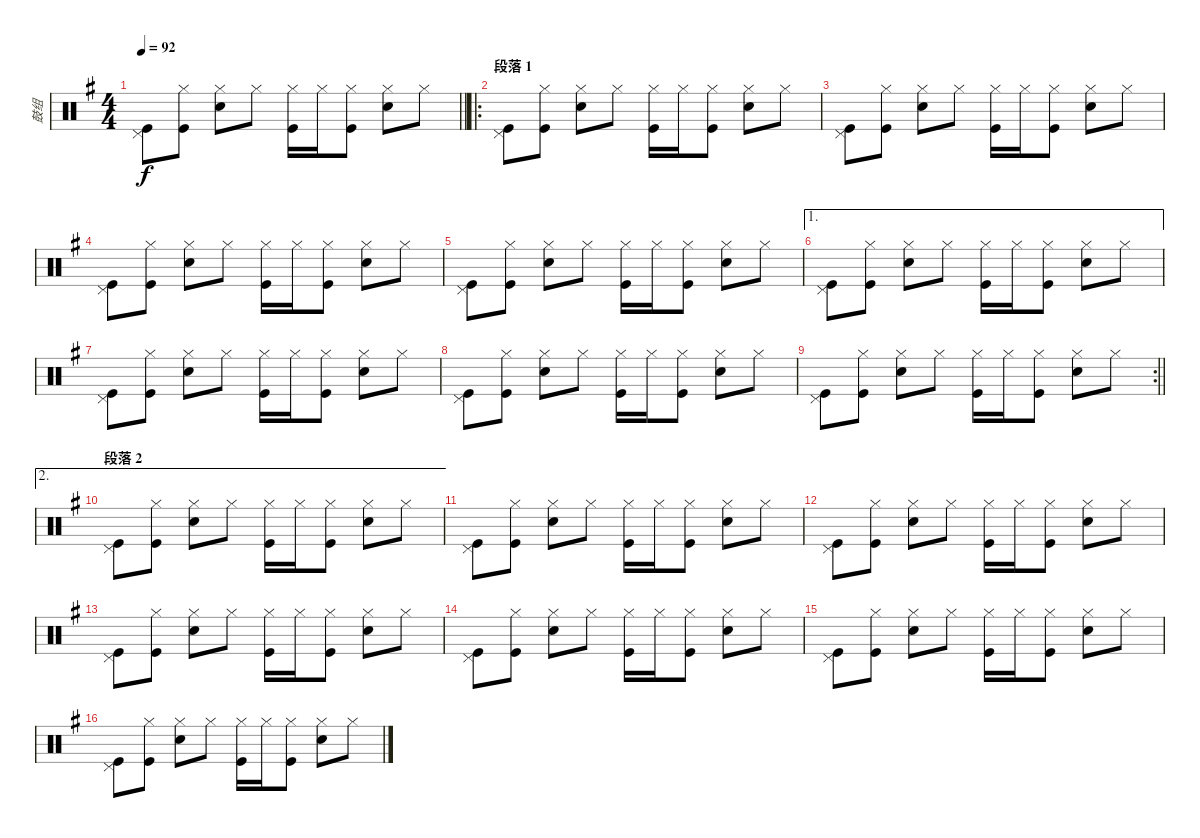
\track ("鼓组" "鼓组") {instrument percussion}
\staff {score}
\articulation defaults
\ts (4 4)
\tempo 92
\clef neutral
\barLineRight lightlight
\ks g
("Pedal Hi-Hat (hit)" "Kick (hit)").8{dy f} ("Hi-Hat (closed)" "Kick (hit)").8 ("Hi-Hat (closed)" "Snare (hit) 2").8 "Hi-Hat (closed)".8 ("Hi-Hat (closed)" "Kick (hit)").16 "Hi-Hat (closed)".16 ("Hi-Hat (closed)" "Kick (hit)").8 ("Hi-Hat (closed)" "Snare (hit) 2").8 "Hi-Hat (closed)".8 |
\ro
\section ("" "段落 1")
("Pedal Hi-Hat (hit)" "Kick (hit)").8 ("Hi-Hat (closed)" "Kick (hit)").8 ("Hi-Hat (closed)" "Snare (hit) 2").8 "Hi-Hat (closed)".8 ("Hi-Hat (closed)" "Kick (hit)").16 "Hi-Hat (closed)".16 ("Hi-Hat (closed)" "Kick (hit)").8 ("Hi-Hat (closed)" "Snare (hit) 2").8 "Hi-Hat (closed)".8 |
("Pedal Hi-Hat (hit)" "Kick (hit)").8 ("Hi-Hat (closed)" "Kick (hit)").8 ("Hi-Hat (closed)" "Snare (hit) 2").8 "Hi-Hat (closed)".8 ("Hi-Hat (closed)" "Kick (hit)").16 "Hi-Hat (closed)".16 ("Hi-Hat (closed)" "Kick (hit)").8 ("Hi-Hat (closed)" "Snare (hit) 2").8 "Hi-Hat (closed)".8 |
("Pedal Hi-Hat (hit)" "Kick (hit)").8 ("Hi-Hat (closed)" "Kick (hit)").8 ("Hi-Hat (closed)" "Snare (hit) 2").8 "Hi-Hat (closed)".8 ("Hi-Hat (closed)" "Kick (hit)").16 "Hi-Hat (closed)".16 ("Hi-Hat (closed)" "Kick (hit)").8 ("Hi-Hat (closed)" "Snare (hit) 2").8 "Hi-Hat (closed)".8 |
("Pedal Hi-Hat (hit)" "Kick (hit)").8 ("Hi-Hat (closed)" "Kick (hit)").8 ("Hi-Hat (closed)" "Snare (hit) 2").8 "Hi-Hat (closed)".8 ("Hi-Hat (closed)" "Kick (hit)").16 "Hi-Hat (closed)".16 ("Hi-Hat (closed)" "Kick (hit)").8 ("Hi-Hat (closed)" "Snare (hit) 2").8 "Hi-Hat (closed)".8 |
\ae 1
("Pedal Hi-Hat (hit)" "Kick (hit)").8 ("Hi-Hat (closed)" "Kick (hit)").8 ("Hi-Hat (closed)" "Snare (hit) 2").8 "Hi-Hat (closed)".8 ("Hi-Hat (closed)" "Kick (hit)").16 "Hi-Hat (closed)".16 ("Hi-Hat (closed)" "Kick (hit)").8 ("Hi-Hat (closed)" "Snare (hit) 2").8 "Hi-Hat (closed)".8 |
("Pedal Hi-Hat (hit)" "Kick (hit)").8 ("Hi-Hat (closed)" "Kick (hit)").8 ("Hi-Hat (closed)" "Snare (hit) 2").8 "Hi-Hat (closed)".8 ("Hi-Hat (closed)" "Kick (hit)").16 "Hi-Hat (closed)".16 ("Hi-Hat (closed)" "Kick (hit)").8 ("Hi-Hat (closed)" "Snare (hit) 2").8 "Hi-Hat (closed)".8 |
("Pedal Hi-Hat (hit)" "Kick (hit)").8 ("Hi-Hat (closed)" "Kick (hit)").8 ("Hi-Hat (closed)" "Snare (hit) 2").8 "Hi-Hat (closed)".8 ("Hi-Hat (closed)" "Kick (hit)").16 "Hi-Hat (closed)".16 ("Hi-Hat (closed)" "Kick (hit)").8 ("Hi-Hat (closed)" "Snare (hit) 2").8 "Hi-Hat (closed)".8 |
\rc 2
\barLineRight lightlight
("Pedal Hi-Hat (hit)" "Kick (hit)").8 ("Hi-Hat (closed)" "Kick (hit)").8 ("Hi-Hat (closed)" "Snare (hit) 2").8 "Hi-Hat (closed)".8 ("Hi-Hat (closed)" "Kick (hit)").16 "Hi-Hat (closed)".16 ("Hi-Hat (closed)" "Kick (hit)").8 ("Hi-Hat (closed)" "Snare (hit) 2").8 "Hi-Hat (closed)".8 |
\ae 2
\section ("" "段落 2")
("Pedal Hi-Hat (hit)" "Kick (hit)").8 ("Hi-Hat (closed)" "Kick (hit)").8 ("Hi-Hat (closed)" "Snare (hit) 2").8 "Hi-Hat (closed)".8 ("Hi-Hat (closed)" "Kick (hit)").16 "Hi-Hat (closed)".16 ("Hi-Hat (closed)" "Kick (hit)").8 ("Hi-Hat (closed)" "Snare (hit) 2").8 "Hi-Hat (closed)".8 |
("Pedal Hi-Hat (hit)" "Kick (hit)").8 ("Hi-Hat (closed)" "Kick (hit)").8 ("Hi-Hat (closed)" "Snare (hit) 2").8 "Hi-Hat (closed)".8 ("Hi-Hat (closed)" "Kick (hit)").16 "Hi-Hat (closed)".16 ("Hi-Hat (closed)" "Kick (hit)").8 ("Hi-Hat (closed)" "Snare (hit) 2").8 "Hi-Hat (closed)".8 |
("Pedal Hi-Hat (hit)" "Kick (hit)").8 ("Hi-Hat (closed)" "Kick (hit)").8 ("Hi-Hat (closed)" "Snare (hit) 2").8 "Hi-Hat (closed)".8 ("Hi-Hat (closed)" "Kick (hit)").16 "Hi-Hat (closed)".16 ("Hi-Hat (closed)" "Kick (hit)").8 ("Hi-Hat (closed)" "Snare (hit) 2").8 "Hi-Hat (closed)".8 |
("Pedal Hi-Hat (hit)" "Kick (hit)").8 ("Hi-Hat (closed)" "Kick (hit)").8 ("Hi-Hat (closed)" "Snare (hit) 2").8 "Hi-Hat (closed)".8 ("Hi-Hat (closed)" "Kick (hit)").16 "Hi-Hat (closed)".16 ("Hi-Hat (closed)" "Kick (hit)").8 ("Hi-Hat (closed)" "Snare (hit) 2").8 "Hi-Hat (closed)".8 |
("Pedal Hi-Hat (hit)" "Kick (hit)").8 ("Hi-Hat (closed)" "Kick (hit)").8 ("Hi-Hat (closed)" "Snare (hit) 2").8 "Hi-Hat (closed)".8 ("Hi-Hat (closed)" "Kick (hit)").16 "Hi-Hat (closed)".16 ("Hi-Hat (closed)" "Kick (hit)").8 ("Hi-Hat (closed)" "Snare (hit) 2").8 "Hi-Hat (closed)".8 |
("Pedal Hi-Hat (hit)" "Kick (hit)").8 ("Hi-Hat (closed)" "Kick (hit)").8 ("Hi-Hat (closed)" "Snare (hit) 2").8 "Hi-Hat (closed)".8 ("Hi-Hat (closed)" "Kick (hit)").16 "Hi-Hat (closed)".16 ("Hi-Hat (closed)" "Kick (hit)").8 ("Hi-Hat (closed)" "Snare (hit) 2").8 "Hi-Hat (closed)".8 |
("Pedal Hi-Hat (hit)" "Kick (hit)").8 ("Hi-Hat (closed)" "Kick (hit)").8 ("Hi-Hat (closed)" "Snare (hit) 2").8 "Hi-Hat (closed)".8 ("Hi-Hat (closed)" "Kick (hit)").16 "Hi-Hat (closed)".16 ("Hi-Hat (closed)" "Kick (hit)").8 ("Hi-Hat (closed)" "Snare (hit) 2").8 "Hi-Hat (closed)".8
